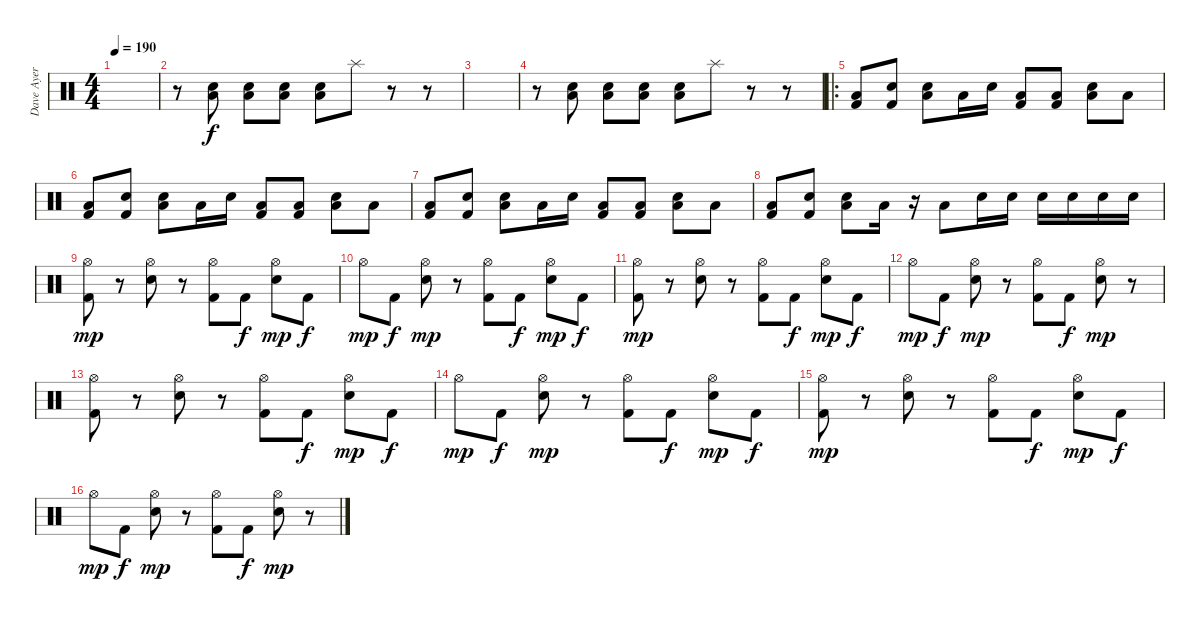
\track ("Dave Ayer" "Dave Ayer") {instrument percussion}
\staff {score}
\articulation defaults
\ts (4 4)
\tempo 190
\clef neutral
\ks c
|
r.8 ("Snare (hit) 2" "Low Floor Tom (hit)").8 ("Snare (hit) 2" "Low Floor Tom (hit)").8 ("Snare (hit) 2" "Low Floor Tom (hit)").8 ("Snare (hit) 2" "Low Floor Tom (hit)").8 "Splash (hit)".8 r.8 r.8 |
|
r.8 ("Snare (hit) 2" "Low Floor Tom (hit)").8 ("Snare (hit) 2" "Low Floor Tom (hit)").8 ("Snare (hit) 2" "Low Floor Tom (hit)").8 ("Snare (hit) 2" "Low Floor Tom (hit)").8 "Splash (hit)".8 r.8 r.8 |
\ro
("Low Floor Tom (hit)" "Kick (hit) 2").8 ("Snare (hit)" "Kick (hit) 2").8 ("Low Floor Tom (hit)" "Snare (hit) 2").8 "Low Floor Tom (hit)".16 "Snare (hit) 2".16 ("Low Floor Tom (hit)" "Kick (hit) 2").8 ("Low Floor Tom (hit)" "Kick (hit) 2").8 ("Low Floor Tom (hit)" "Snare (hit) 2").8 "Low Floor Tom (hit)".8 |
("Low Floor Tom (hit)" "Kick (hit) 2").8 ("Snare (hit)" "Kick (hit) 2").8 ("Low Floor Tom (hit)" "Snare (hit) 2").8 "Low Floor Tom (hit)".16 "Snare (hit) 2".16 ("Low Floor Tom (hit)" "Kick (hit) 2").8 ("Low Floor Tom (hit)" "Kick (hit) 2").8 ("Low Floor Tom (hit)" "Snare (hit) 2").8 "Low Floor Tom (hit)".8 |
("Low Floor Tom (hit)" "Kick (hit) 2").8 ("Snare (hit)" "Kick (hit) 2").8 ("Low Floor Tom (hit)" "Snare (hit) 2").8 "Low Floor Tom (hit)".16 "Snare (hit) 2".16 ("Low Floor Tom (hit)" "Kick (hit) 2").8 ("Low Floor Tom (hit)" "Kick (hit) 2").8 ("Low Floor Tom (hit)" "Snare (hit) 2").8 "Low Floor Tom (hit)".8 |
("Low Floor Tom (hit)" "Kick (hit) 2").8 ("Snare (hit)" "Kick (hit) 2").8 ("Low Floor Tom (hit)" "Snare (hit) 2").8 "Low Floor Tom (hit)".16 r.16 "Low Floor Tom (hit)".8 "Snare (hit) 2".16 "Snare (hit) 2".16 "Snare (hit) 2".16 "Snare (hit) 2".16 "Snare (hit) 2".16 "Snare (hit) 2".16 |
("Hi-Hat (open)" "Kick (hit) 2").8{dy mp} r.8 ("Hi-Hat (open)" "Snare (hit) 2").8 r.8 ("Hi-Hat (open)" "Kick (hit) 2").8 "Kick (hit) 2".8{dy f} ("Hi-Hat (open)" "Snare (hit) 2").8{dy mp} "Kick (hit) 2".8{dy f} |
"Hi-Hat (open)".8{dy mp} "Kick (hit) 2".8{dy f} ("Hi-Hat (open)" "Snare (hit) 2").8{dy mp} r.8 ("Hi-Hat (open)" "Kick (hit) 2").8 "Kick (hit) 2".8{dy f} ("Hi-Hat (open)" "Snare (hit) 2").8{dy mp} "Kick (hit) 2".8{dy f} |
("Hi-Hat (open)" "Kick (hit) 2").8{dy mp} r.8 ("Hi-Hat (open)" "Snare (hit) 2").8 r.8 ("Hi-Hat (open)" "Kick (hit) 2").8 "Kick (hit) 2".8{dy f} ("Hi-Hat (open)" "Snare (hit) 2").8{dy mp} "Kick (hit) 2".8{dy f} |
"Hi-Hat (open)".8{dy mp} "Kick (hit) 2".8{dy f} ("Hi-Hat (open)" "Snare (hit) 2").8{dy mp} r.8 ("Hi-Hat (open)" "Kick (hit) 2").8 "Kick (hit) 2".8{dy f} ("Hi-Hat (open)" "Snare (hit) 2").8{dy mp} r.8 |
("Hi-Hat (open)" "Kick (hit) 2").8 r.8 ("Hi-Hat (open)" "Snare (hit) 2").8 r.8 ("Hi-Hat (open)" "Kick (hit) 2").8 "Kick (hit) 2".8{dy f} ("Hi-Hat (open)" "Snare (hit) 2").8{dy mp} "Kick (hit) 2".8{dy f} |
"Hi-Hat (open)".8{dy mp} "Kick (hit) 2".8{dy f} ("Hi-Hat (open)" "Snare (hit) 2").8{dy mp} r.8 ("Hi-Hat (open)" "Kick (hit) 2").8 "Kick (hit) 2".8{dy f} ("Hi-Hat (open)" "Snare (hit) 2").8{dy mp} "Kick (hit) 2".8{dy f} |
("Hi-Hat (open)" "Kick (hit) 2").8{dy mp} r.8 ("Hi-Hat (open)" "Snare (hit) 2").8 r.8 ("Hi-Hat (open)" "Kick (hit) 2").8 "Kick (hit) 2".8{dy f} ("Hi-Hat (open)" "Snare (hit) 2").8{dy mp} "Kick (hit) 2".8{dy f} |
"Hi-Hat (open)".8{dy mp} "Kick (hit) 2".8{dy f} ("Hi-Hat (open)" "Snare (hit) 2").8{dy mp} r.8 ("Hi-Hat (open)" "Kick (hit) 2").8 "Kick (hit) 2".8{dy f} ("Hi-Hat (open)" "Snare (hit) 2").8{dy mp} r.8
